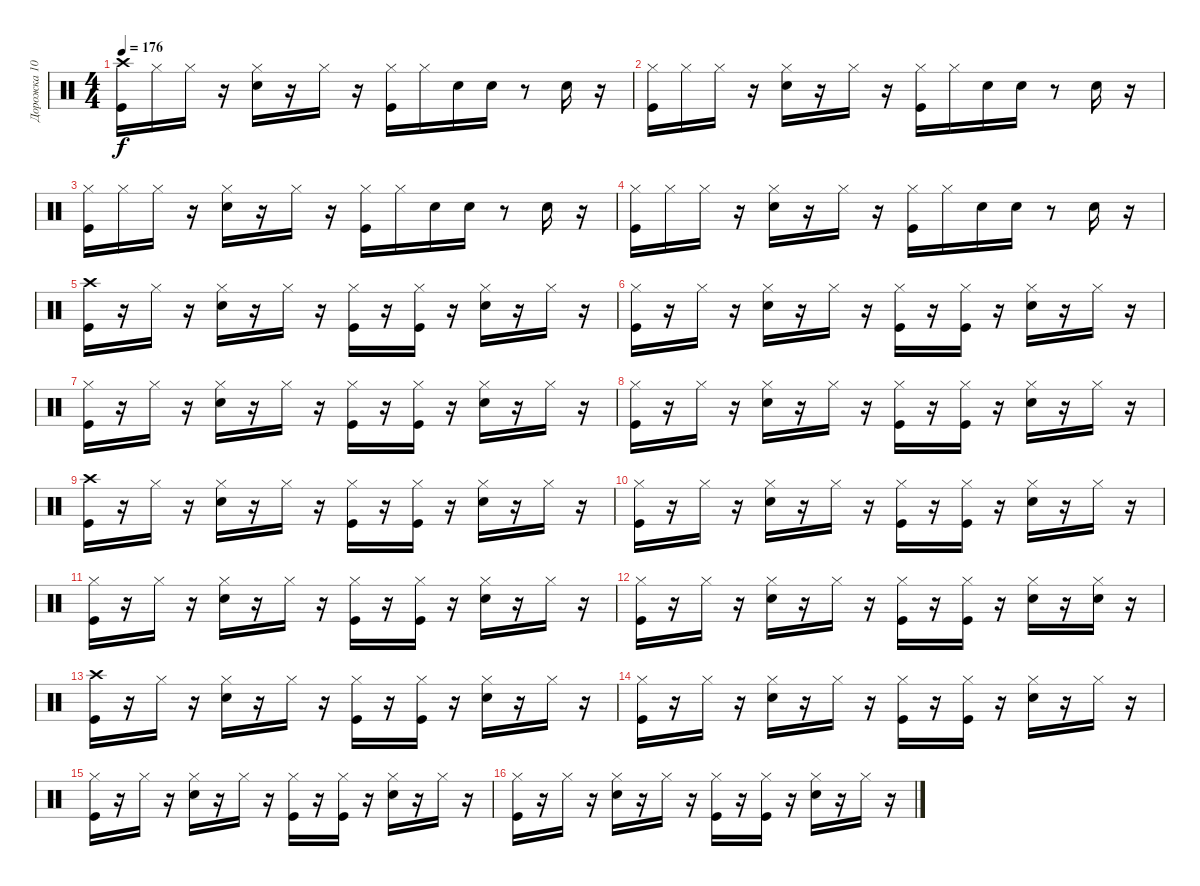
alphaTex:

\track ("Дорожка 10" "Дорожка 10") {instrument percussion}
\staff {score}
\articulation defaults
\ts (4 4)
\tempo 176
\clef neutral
\ks c
("Crash high (hit)" "Kick (hit)").16{dy f} "Hi-Hat (closed)".16 "Hi-Hat (closed)".16 r.16 ("Electric Snare (hit)" "Hi-Hat (closed)").16 r.16 "Hi-Hat (closed)".16 r.16 ("Hi-Hat (closed)" "Kick (hit)").16 "Hi-Hat (closed)".16 "Electric Snare (hit)".16 "Electric Snare (hit)".16 r.8 "Electric Snare (hit)".16 r.16 |
("Hi-Hat (closed)" "Kick (hit)").16 "Hi-Hat (closed)".16 "Hi-Hat (closed)".16 r.16 ("Hi-Hat (closed)" "Electric Snare (hit)").16 r.16 "Hi-Hat (closed)".16 r.16 ("Hi-Hat (closed)" "Kick (hit)").16 "Hi-Hat (closed)".16 "Electric Snare (hit)".16 "Electric Snare (hit)".16 r.8 "Electric Snare (hit)".16 r.16 |
("Kick (hit)" "Hi-Hat (closed)").16 "Hi-Hat (closed)".16 "Hi-Hat (closed)".16 r.16 ("Electric Snare (hit)" "Hi-Hat (closed)").16 r.16 "Hi-Hat (closed)".16 r.16 ("Kick (hit)" "Hi-Hat (closed)").16 "Hi-Hat (closed)".16 "Electric Snare (hit)".16 "Electric Snare (hit)".16 r.8 "Electric Snare (hit)".16 r.16 |
("Kick (hit)" "Hi-Hat (closed)").16 "Hi-Hat (closed)".16 "Hi-Hat (closed)".16 r.16 ("Electric Snare (hit)" "Hi-Hat (closed)").16 r.16 "Hi-Hat (closed)".16 r.16 ("Hi-Hat (closed)" "Kick (hit)").16 "Hi-Hat (closed)".16 "Electric Snare (hit)".16 "Electric Snare (hit)".16 r.8 "Electric Snare (hit)".16 r.16 |
("Kick (hit)" "Crash high (hit)").16 r.16 "Hi-Hat (closed)".16 r.16 ("Hi-Hat (closed)" "Electric Snare (hit)").16 r.16 "Hi-Hat (closed)".16 r.16 ("Kick (hit)" "Hi-Hat (closed)").16 r.16 ("Kick (hit)" "Hi-Hat (closed)").16 r.16 ("Electric Snare (hit)" "Hi-Hat (closed)").16 r.16 "Hi-Hat (closed)".16 r.16 |
("Kick (hit)" "Hi-Hat (closed)").16 r.16 "Hi-Hat (closed)".16 r.16 ("Hi-Hat (closed)" "Electric Snare (hit)").16 r.16 "Hi-Hat (closed)".16 r.16 ("Hi-Hat (closed)" "Kick (hit)").16 r.16 ("Hi-Hat (closed)" "Kick (hit)").16 r.16 ("Hi-Hat (closed)" "Electric Snare (hit)").16 r.16 "Hi-Hat (closed)".16 r.16 |
("Kick (hit)" "Hi-Hat (closed)").16 r.16 "Hi-Hat (closed)".16 r.16 ("Hi-Hat (closed)" "Electric Snare (hit)").16 r.16 "Hi-Hat (closed)".16 r.16 ("Hi-Hat (closed)" "Kick (hit)").16 r.16 ("Hi-Hat (closed)" "Kick (hit)").16 r.16 ("Hi-Hat (closed)" "Electric Snare (hit)").16 r.16 "Hi-Hat (closed)".16 r.16 |
("Hi-Hat (closed)" "Kick (hit)").16 r.16 "Hi-Hat (closed)".16 r.16 ("Hi-Hat (closed)" "Electric Snare (hit)").16 r.16 "Hi-Hat (closed)".16 r.16 ("Kick (hit)" "Hi-Hat (closed)").16 r.16 ("Kick (hit)" "Hi-Hat (closed)").16 r.16 ("Electric Snare (hit)" "Hi-Hat (closed)").16 r.16 "Hi-Hat (closed)".16 r.16 |
("Kick (hit)" "Crash high (hit)").16 r.16 "Hi-Hat (closed)".16 r.16 ("Electric Snare (hit)" "Hi-Hat (closed)").16 r.16 "Hi-Hat (closed)".16 r.16 ("Kick (hit)" "Hi-Hat (closed)").16 r.16 ("Hi-Hat (closed)" "Kick (hit)").16 r.16 ("Electric Snare (hit)" "Hi-Hat (closed)").16 r.16 "Hi-Hat (closed)".16 r.16 |
("Hi-Hat (closed)" "Kick (hit)").16 r.16 "Hi-Hat (closed)".16 r.16 ("Hi-Hat (closed)" "Electric Snare (hit)").16 r.16 "Hi-Hat (closed)".16 r.16 ("Hi-Hat (closed)" "Kick (hit)").16 r.16 ("Hi-Hat (closed)" "Kick (hit)").16 r.16 ("Hi-Hat (closed)" "Electric Snare (hit)").16 r.16 "Hi-Hat (closed)".16 r.16 |
("Kick (hit)" "Hi-Hat (closed)").16 r.16 "Hi-Hat (closed)".16 r.16 ("Electric Snare (hit)" "Hi-Hat (closed)").16 r.16 "Hi-Hat (closed)".16 r.16 ("Kick (hit)" "Hi-Hat (closed)").16 r.16 ("Hi-Hat (closed)" "Kick (hit)").16 r.16 ("Electric Snare (hit)" "Hi-Hat (closed)").16 r.16 "Hi-Hat (closed)".16 r.16 |
("Hi-Hat (closed)" "Kick (hit)").16 r.16 "Hi-Hat (closed)".16 r.16 ("Hi-Hat (closed)" "Electric Snare (hit)").16 r.16 "Hi-Hat (closed)".16 r.16 ("Hi-Hat (closed)" "Kick (hit)").16 r.16 ("Hi-Hat (closed)" "Kick (hit)").16 r.16 ("Hi-Hat (closed)" "Electric Snare (hit)").16 r.16 ("Hi-Hat (closed)" "Electric Snare (hit)").16 r.16 |
("Kick (hit)" "Crash high (hit)").16 r.16 "Hi-Hat (closed)".16 r.16 ("Hi-Hat (closed)" "Electric Snare (hit)").16 r.16 "Hi-Hat (closed)".16 r.16 ("Kick (hit)" "Hi-Hat (closed)").16 r.16 ("Kick (hit)" "Hi-Hat (closed)").16 r.16 ("Electric Snare (hit)" "Hi-Hat (closed)").16 r.16 "Hi-Hat (closed)".16 r.16 |
("Kick (hit)" "Hi-Hat (closed)").16 r.16 "Hi-Hat (closed)".16 r.16 ("Electric Snare (hit)" "Hi-Hat (closed)").16 r.16 "Hi-Hat (closed)".16 r.16 ("Hi-Hat (closed)" "Kick (hit)").16 r.16 ("Hi-Hat (closed)" "Kick (hit)").16 r.16 ("Electric Snare (hit)" "Hi-Hat (closed)").16 r.16 "Hi-Hat (closed)".16 r.16 |
("Kick (hit)" "Hi-Hat (closed)").16 r.16 "Hi-Hat (closed)".16 r.16 ("Electric Snare (hit)" "Hi-Hat (closed)").16 r.16 "Hi-Hat (closed)".16 r.16 ("Hi-Hat (closed)" "Kick (hit)").16 r.16 ("Kick (hit)" "Hi-Hat (closed)").16 r.16 ("Electric Snare (hit)" "Hi-Hat (closed)").16 r.16 "Hi-Hat (closed)".16 r.16 |
("Hi-Hat (closed)" "Kick (hit)").16 r.16 "Hi-Hat (closed)".16 r.16 ("Hi-Hat (closed)" "Electric Snare (hit)").16 r.16 "Hi-Hat (closed)".16 r.16 ("Kick (hit)" "Hi-Hat (closed)").16 r.16 ("Kick (hit)" "Hi-Hat (closed)").16 r.16 ("Hi-Hat (closed)" "Electric Snare (hit)").16 r.16 "Hi-Hat (closed)".16 r.16
